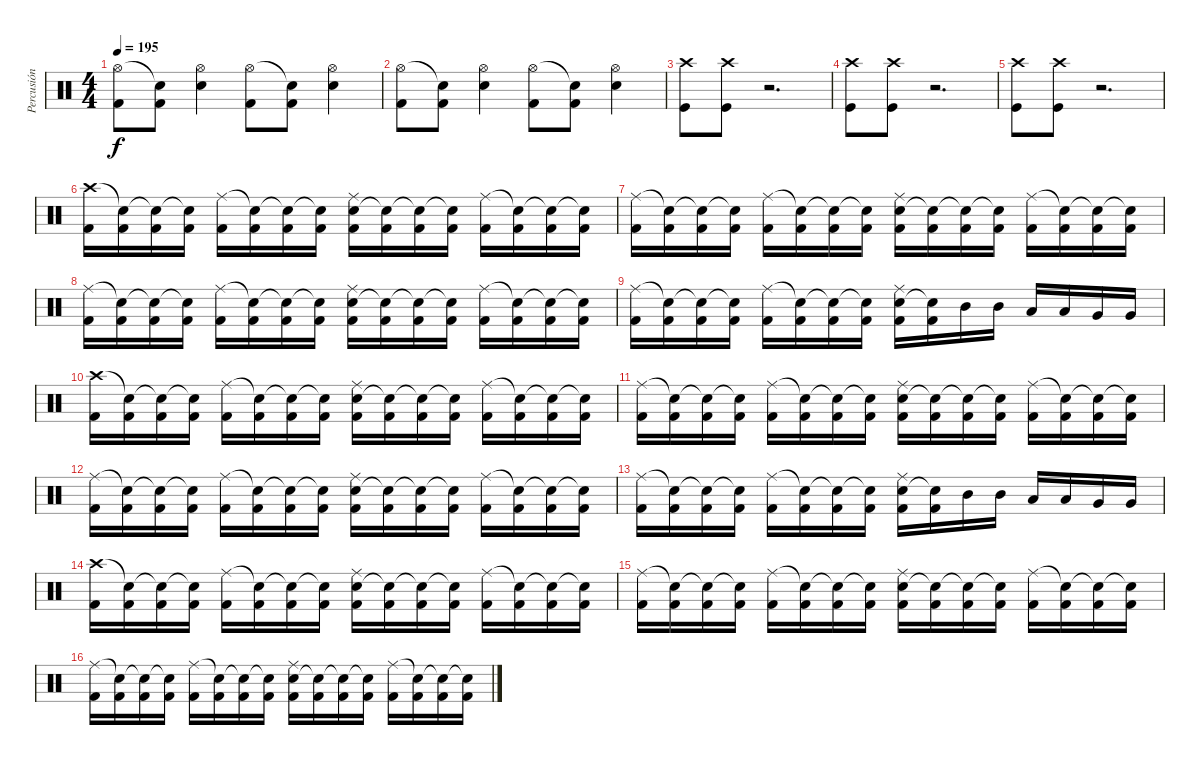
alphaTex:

\track ("Percusión" "Percusión") {instrument percussion}
\staff {score}
\articulation defaults
\ts (4 4)
\tempo 195
\clef neutral
\ks c
("Kick (hit) 2" "Hi-Hat (open)").8{dy f} ("Kick (hit) 2" "Snare (hit)"{t}).8 ("Snare (hit) 2" "Hi-Hat (open)").4 ("Kick (hit) 2" "Hi-Hat (open)").8 ("Kick (hit) 2" "Snare (hit)"{t}).8 ("Snare (hit) 2" "Hi-Hat (open)").4 |
("Kick (hit) 2" "Hi-Hat (open)").8 ("Kick (hit) 2" "Snare (hit)"{t}).8 ("Snare (hit) 2" "Hi-Hat (open)").4 ("Kick (hit) 2" "Hi-Hat (open)").8 ("Kick (hit) 2" "Snare (hit)"{t}).8 ("Snare (hit) 2" "Hi-Hat (open)").4 |
("Crash high (hit)" "Kick (hit)").8 ("Crash high (hit)" "Kick (hit)").8 r.2{d} |
("Crash high (hit)" "Kick (hit)").8 ("Crash high (hit)" "Kick (hit)").8 r.2{d} |
("Crash high (hit)" "Kick (hit)").8 ("Crash high (hit)" "Kick (hit)").8 r.2{d} |
("Kick (hit) 2" "Crash high (hit)").16 ("Kick (hit) 2" "Snare (hit)"{t}).16 ("Kick (hit) 2" "Snare (hit)"{t}).16 ("Kick (hit) 2" "Snare (hit)"{t}).16 ("Kick (hit) 2" "Ride (middle)").16 ("Kick (hit) 2" "Snare (hit)"{t}).16 ("Kick (hit) 2" "Snare (hit)"{t}).16 ("Kick (hit) 2" "Snare (hit)"{t}).16 ("Kick (hit) 2" "Snare (hit) 2" "Ride (middle)").16 ("Kick (hit) 2" "Snare (hit)"{t}).16 ("Kick (hit) 2" "Snare (hit)"{t}).16 ("Kick (hit) 2" "Snare (hit)"{t}).16 ("Kick (hit) 2" "Ride (middle)").16 ("Kick (hit) 2" "Snare (hit)"{t}).16 ("Kick (hit) 2" "Snare (hit)"{t}).16 ("Kick (hit) 2" "Snare (hit)"{t}).16 |
("Kick (hit) 2" "Ride (middle)").16 ("Kick (hit) 2" "Snare (hit)"{t}).16 ("Kick (hit) 2" "Snare (hit)"{t}).16 ("Kick (hit) 2" "Snare (hit)"{t}).16 ("Kick (hit) 2" "Ride (middle)").16 ("Kick (hit) 2" "Snare (hit)"{t}).16 ("Kick (hit) 2" "Snare (hit)"{t}).16 ("Kick (hit) 2" "Snare (hit)"{t}).16 ("Kick (hit) 2" "Snare (hit) 2" "Ride (middle)").16 ("Kick (hit) 2" "Snare (hit)"{t}).16 ("Kick (hit) 2" "Snare (hit)"{t}).16 ("Kick (hit) 2" "Snare (hit)"{t}).16 ("Kick (hit) 2" "Ride (middle)").16 ("Kick (hit) 2" "Snare (hit)"{t}).16 ("Kick (hit) 2" "Snare (hit)"{t}).16 ("Kick (hit) 2" "Snare (hit)"{t}).16 |
("Kick (hit) 2" "Ride (middle)").16 ("Kick (hit) 2" "Snare (hit)"{t}).16 ("Kick (hit) 2" "Snare (hit)"{t}).16 ("Kick (hit) 2" "Snare (hit)"{t}).16 ("Kick (hit) 2" "Ride (middle)").16 ("Kick (hit) 2" "Snare (hit)"{t}).16 ("Kick (hit) 2" "Snare (hit)"{t}).16 ("Kick (hit) 2" "Snare (hit)"{t}).16 ("Kick (hit) 2" "Snare (hit) 2" "Ride (middle)").16 ("Kick (hit) 2" "Snare (hit)"{t}).16 ("Kick (hit) 2" "Snare (hit)"{t}).16 ("Kick (hit) 2" "Snare (hit)"{t}).16 ("Kick (hit) 2" "Ride (middle)").16 ("Kick (hit) 2" "Snare (hit)"{t}).16 ("Kick (hit) 2" "Snare (hit)"{t}).16 ("Kick (hit) 2" "Snare (hit)"{t}).16 |
("Kick (hit) 2" "Ride (middle)").16 ("Kick (hit) 2" "Snare (hit)"{t}).16 ("Kick (hit) 2" "Snare (hit)"{t}).16 ("Kick (hit) 2" "Snare (hit)"{t}).16 ("Kick (hit) 2" "Ride (middle)").16 ("Kick (hit) 2" "Snare (hit)"{t}).16 ("Kick (hit) 2" "Snare (hit)"{t}).16 ("Kick (hit) 2" "Snare (hit)"{t}).16 ("Kick (hit) 2" "Snare (hit) 2" "Ride (middle)").16 ("Kick (hit) 2" "Snare (hit)"{t}).16 "Mid Tom (hit)".16 "Mid Tom (hit)".16 "Low Tom (hit)".16 "Low Tom (hit)".16 "Very Low Tom (hit)".16 "Very Low Tom (hit)".16 |
("Kick (hit) 2" "Crash high (hit)").16 ("Kick (hit) 2" "Snare (hit)"{t}).16 ("Kick (hit) 2" "Snare (hit)"{t}).16 ("Kick (hit) 2" "Snare (hit)"{t}).16 ("Kick (hit) 2" "Ride (middle)").16 ("Kick (hit) 2" "Snare (hit)"{t}).16 ("Kick (hit) 2" "Snare (hit)"{t}).16 ("Kick (hit) 2" "Snare (hit)"{t}).16 ("Kick (hit) 2" "Snare (hit) 2" "Ride (middle)").16 ("Kick (hit) 2" "Snare (hit)"{t}).16 ("Kick (hit) 2" "Snare (hit)"{t}).16 ("Kick (hit) 2" "Snare (hit)"{t}).16 ("Kick (hit) 2" "Ride (middle)").16 ("Kick (hit) 2" "Snare (hit)"{t}).16 ("Kick (hit) 2" "Snare (hit)"{t}).16 ("Kick (hit) 2" "Snare (hit)"{t}).16 |
("Kick (hit) 2" "Ride (middle)").16 ("Kick (hit) 2" "Snare (hit)"{t}).16 ("Kick (hit) 2" "Snare (hit)"{t}).16 ("Kick (hit) 2" "Snare (hit)"{t}).16 ("Kick (hit) 2" "Ride (middle)").16 ("Kick (hit) 2" "Snare (hit)"{t}).16 ("Kick (hit) 2" "Snare (hit)"{t}).16 ("Kick (hit) 2" "Snare (hit)"{t}).16 ("Kick (hit) 2" "Snare (hit) 2" "Ride (middle)").16 ("Kick (hit) 2" "Snare (hit)"{t}).16 ("Kick (hit) 2" "Snare (hit)"{t}).16 ("Kick (hit) 2" "Snare (hit)"{t}).16 ("Kick (hit) 2" "Ride (middle)").16 ("Kick (hit) 2" "Snare (hit)"{t}).16 ("Kick (hit) 2" "Snare (hit)"{t}).16 ("Kick (hit) 2" "Snare (hit)"{t}).16 |
("Kick (hit) 2" "Ride (middle)").16 ("Kick (hit) 2" "Snare (hit)"{t}).16 ("Kick (hit) 2" "Snare (hit)"{t}).16 ("Kick (hit) 2" "Snare (hit)"{t}).16 ("Kick (hit) 2" "Ride (middle)").16 ("Kick (hit) 2" "Snare (hit)"{t}).16 ("Kick (hit) 2" "Snare (hit)"{t}).16 ("Kick (hit) 2" "Snare (hit)"{t}).16 ("Kick (hit) 2" "Snare (hit) 2" "Ride (middle)").16 ("Kick (hit) 2" "Snare (hit)"{t}).16 ("Kick (hit) 2" "Snare (hit)"{t}).16 ("Kick (hit) 2" "Snare (hit)"{t}).16 ("Kick (hit) 2" "Ride (middle)").16 ("Kick (hit) 2" "Snare (hit)"{t}).16 ("Kick (hit) 2" "Snare (hit)"{t}).16 ("Kick (hit) 2" "Snare (hit)"{t}).16 |
("Kick (hit) 2" "Ride (middle)").16 ("Kick (hit) 2" "Snare (hit)"{t}).16 ("Kick (hit) 2" "Snare (hit)"{t}).16 ("Kick (hit) 2" "Snare (hit)"{t}).16 ("Kick (hit) 2" "Ride (middle)").16 ("Kick (hit) 2" "Snare (hit)"{t}).16 ("Kick (hit) 2" "Snare (hit)"{t}).16 ("Kick (hit) 2" "Snare (hit)"{t}).16 ("Kick (hit) 2" "Snare (hit) 2" "Ride (middle)").16 ("Kick (hit) 2" "Snare (hit)"{t}).16 "Mid Tom (hit)".16 "Mid Tom (hit)".16 "Low Tom (hit)".16 "Low Tom (hit)".16 "Very Low Tom (hit)".16 "Very Low Tom (hit)".16 |
("Kick (hit) 2" "Crash high (hit)").16 ("Kick (hit) 2" "Snare (hit)"{t}).16 ("Kick (hit) 2" "Snare (hit)"{t}).16 ("Kick (hit) 2" "Snare (hit)"{t}).16 ("Kick (hit) 2" "Ride (middle)").16 ("Kick (hit) 2" "Snare (hit)"{t}).16 ("Kick (hit) 2" "Snare (hit)"{t}).16 ("Kick (hit) 2" "Snare (hit)"{t}).16 ("Kick (hit) 2" "Snare (hit) 2" "Ride (middle)").16 ("Kick (hit) 2" "Snare (hit)"{t}).16 ("Kick (hit) 2" "Snare (hit)"{t}).16 ("Kick (hit) 2" "Snare (hit)"{t}).16 ("Kick (hit) 2" "Ride (middle)").16 ("Kick (hit) 2" "Snare (hit)"{t}).16 ("Kick (hit) 2" "Snare (hit)"{t}).16 ("Kick (hit) 2" "Snare (hit)"{t}).16 |
("Kick (hit) 2" "Ride (middle)").16 ("Kick (hit) 2" "Snare (hit)"{t}).16 ("Kick (hit) 2" "Snare (hit)"{t}).16 ("Kick (hit) 2" "Snare (hit)"{t}).16 ("Kick (hit) 2" "Ride (middle)").16 ("Kick (hit) 2" "Snare (hit)"{t}).16 ("Kick (hit) 2" "Snare (hit)"{t}).16 ("Kick (hit) 2" "Snare (hit)"{t}).16 ("Kick (hit) 2" "Snare (hit) 2" "Ride (middle)").16 ("Kick (hit) 2" "Snare (hit)"{t}).16 ("Kick (hit) 2" "Snare (hit)"{t}).16 ("Kick (hit) 2" "Snare (hit)"{t}).16 ("Kick (hit) 2" "Ride (middle)").16 ("Kick (hit) 2" "Snare (hit)"{t}).16 ("Kick (hit) 2" "Snare (hit)"{t}).16 ("Kick (hit) 2" "Snare (hit)"{t}).16 |
("Kick (hit) 2" "Ride (middle)").16 ("Kick (hit) 2" "Snare (hit)"{t}).16 ("Kick (hit) 2" "Snare (hit)"{t}).16 ("Kick (hit) 2" "Snare (hit)"{t}).16 ("Kick (hit) 2" "Ride (middle)").16 ("Kick (hit) 2" "Snare (hit)"{t}).16 ("Kick (hit) 2" "Snare (hit)"{t}).16 ("Kick (hit) 2" "Snare (hit)"{t}).16 ("Kick (hit) 2" "Snare (hit) 2" "Ride (middle)").16 ("Kick (hit) 2" "Snare (hit)"{t}).16 ("Kick (hit) 2" "Snare (hit)"{t}).16 ("Kick (hit) 2" "Snare (hit)"{t}).16 ("Kick (hit) 2" "Ride (middle)").16 ("Kick (hit) 2" "Snare (hit)"{t}).16 ("Kick (hit) 2" "Snare (hit)"{t}).16 ("Kick (hit) 2" "Snare (hit)"{t}).16
